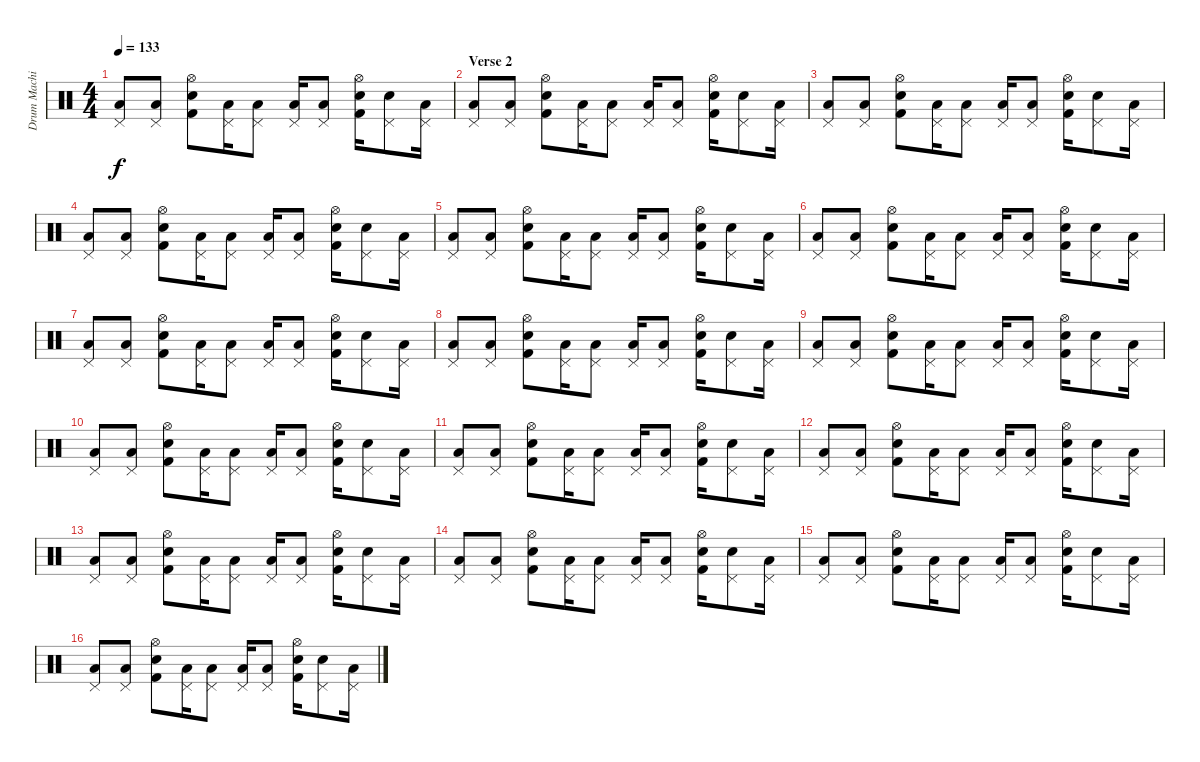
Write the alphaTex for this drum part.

\track ("Drum Machine" "Drum Machi") {instrument percussion}
\staff {score}
\articulation defaults
\ts (4 4)
\tempo 133
\clef neutral
\ks c
("Pedal Hi-Hat (hit)" "Low Tom (hit)").8{dy f} ("Pedal Hi-Hat (hit)" "Low Tom (hit)").8 ("Hi-Hat (open)" "Snare (hit) 2" "Kick (hit) 2").8 ("Pedal Hi-Hat (hit)" "Low Tom (hit)").16 ("Pedal Hi-Hat (hit)" "Low Tom (hit)").8 ("Pedal Hi-Hat (hit)" "Low Tom (hit)").16 ("Pedal Hi-Hat (hit)" "Low Tom (hit)").8 ("Hi-Hat (open)" "Snare (hit) 2" "Kick (hit) 2").16 ("Pedal Hi-Hat (hit)" "Snare (hit) 2").8 ("Pedal Hi-Hat (hit)" "Low Tom (hit)").16 |
\section ("" "Verse 2")
("Pedal Hi-Hat (hit)" "Low Tom (hit)").8 ("Pedal Hi-Hat (hit)" "Low Tom (hit)").8 ("Hi-Hat (open)" "Snare (hit) 2" "Kick (hit) 2").8 ("Pedal Hi-Hat (hit)" "Low Tom (hit)").16 ("Pedal Hi-Hat (hit)" "Low Tom (hit)").8 ("Pedal Hi-Hat (hit)" "Low Tom (hit)").16 ("Pedal Hi-Hat (hit)" "Low Tom (hit)").8 ("Hi-Hat (open)" "Snare (hit) 2" "Kick (hit) 2").16 ("Pedal Hi-Hat (hit)" "Snare (hit) 2").8 ("Pedal Hi-Hat (hit)" "Low Tom (hit)").16 |
("Pedal Hi-Hat (hit)" "Low Tom (hit)").8 ("Pedal Hi-Hat (hit)" "Low Tom (hit)").8 ("Hi-Hat (open)" "Snare (hit) 2" "Kick (hit) 2").8 ("Pedal Hi-Hat (hit)" "Low Tom (hit)").16 ("Pedal Hi-Hat (hit)" "Low Tom (hit)").8 ("Pedal Hi-Hat (hit)" "Low Tom (hit)").16 ("Pedal Hi-Hat (hit)" "Low Tom (hit)").8 ("Hi-Hat (open)" "Snare (hit) 2" "Kick (hit) 2").16 ("Pedal Hi-Hat (hit)" "Snare (hit) 2").8 ("Pedal Hi-Hat (hit)" "Low Tom (hit)").16 |
("Pedal Hi-Hat (hit)" "Low Tom (hit)").8 ("Pedal Hi-Hat (hit)" "Low Tom (hit)").8 ("Hi-Hat (open)" "Snare (hit) 2" "Kick (hit) 2").8 ("Pedal Hi-Hat (hit)" "Low Tom (hit)").16 ("Pedal Hi-Hat (hit)" "Low Tom (hit)").8 ("Pedal Hi-Hat (hit)" "Low Tom (hit)").16 ("Pedal Hi-Hat (hit)" "Low Tom (hit)").8 ("Hi-Hat (open)" "Snare (hit) 2" "Kick (hit) 2").16 ("Pedal Hi-Hat (hit)" "Snare (hit) 2").8 ("Pedal Hi-Hat (hit)" "Low Tom (hit)").16 |
("Pedal Hi-Hat (hit)" "Low Tom (hit)").8 ("Pedal Hi-Hat (hit)" "Low Tom (hit)").8 ("Hi-Hat (open)" "Snare (hit) 2" "Kick (hit) 2").8 ("Pedal Hi-Hat (hit)" "Low Tom (hit)").16 ("Pedal Hi-Hat (hit)" "Low Tom (hit)").8 ("Pedal Hi-Hat (hit)" "Low Tom (hit)").16 ("Pedal Hi-Hat (hit)" "Low Tom (hit)").8 ("Hi-Hat (open)" "Snare (hit) 2" "Kick (hit) 2").16 ("Pedal Hi-Hat (hit)" "Snare (hit) 2").8 ("Pedal Hi-Hat (hit)" "Low Tom (hit)").16 |
("Pedal Hi-Hat (hit)" "Low Tom (hit)").8 ("Pedal Hi-Hat (hit)" "Low Tom (hit)").8 ("Hi-Hat (open)" "Snare (hit) 2" "Kick (hit) 2").8 ("Pedal Hi-Hat (hit)" "Low Tom (hit)").16 ("Pedal Hi-Hat (hit)" "Low Tom (hit)").8 ("Pedal Hi-Hat (hit)" "Low Tom (hit)").16 ("Pedal Hi-Hat (hit)" "Low Tom (hit)").8 ("Hi-Hat (open)" "Snare (hit) 2" "Kick (hit) 2").16 ("Pedal Hi-Hat (hit)" "Snare (hit) 2").8 ("Pedal Hi-Hat (hit)" "Low Tom (hit)").16 |
("Pedal Hi-Hat (hit)" "Low Tom (hit)").8 ("Pedal Hi-Hat (hit)" "Low Tom (hit)").8 ("Hi-Hat (open)" "Snare (hit) 2" "Kick (hit) 2").8 ("Pedal Hi-Hat (hit)" "Low Tom (hit)").16 ("Pedal Hi-Hat (hit)" "Low Tom (hit)").8 ("Pedal Hi-Hat (hit)" "Low Tom (hit)").16 ("Pedal Hi-Hat (hit)" "Low Tom (hit)").8 ("Hi-Hat (open)" "Snare (hit) 2" "Kick (hit) 2").16 ("Pedal Hi-Hat (hit)" "Snare (hit) 2").8 ("Pedal Hi-Hat (hit)" "Low Tom (hit)").16 |
("Pedal Hi-Hat (hit)" "Low Tom (hit)").8 ("Pedal Hi-Hat (hit)" "Low Tom (hit)").8 ("Hi-Hat (open)" "Snare (hit) 2" "Kick (hit) 2").8 ("Pedal Hi-Hat (hit)" "Low Tom (hit)").16 ("Pedal Hi-Hat (hit)" "Low Tom (hit)").8 ("Pedal Hi-Hat (hit)" "Low Tom (hit)").16 ("Pedal Hi-Hat (hit)" "Low Tom (hit)").8 ("Hi-Hat (open)" "Snare (hit) 2" "Kick (hit) 2").16 ("Pedal Hi-Hat (hit)" "Snare (hit) 2").8 ("Pedal Hi-Hat (hit)" "Low Tom (hit)").16 |
("Pedal Hi-Hat (hit)" "Low Tom (hit)").8 ("Pedal Hi-Hat (hit)" "Low Tom (hit)").8 ("Hi-Hat (open)" "Snare (hit) 2" "Kick (hit) 2").8 ("Pedal Hi-Hat (hit)" "Low Tom (hit)").16 ("Pedal Hi-Hat (hit)" "Low Tom (hit)").8 ("Pedal Hi-Hat (hit)" "Low Tom (hit)").16 ("Pedal Hi-Hat (hit)" "Low Tom (hit)").8 ("Hi-Hat (open)" "Snare (hit) 2" "Kick (hit) 2").16 ("Pedal Hi-Hat (hit)" "Snare (hit) 2").8 ("Pedal Hi-Hat (hit)" "Low Tom (hit)").16 |
("Pedal Hi-Hat (hit)" "Low Tom (hit)").8 ("Pedal Hi-Hat (hit)" "Low Tom (hit)").8 ("Hi-Hat (open)" "Snare (hit) 2" "Kick (hit) 2").8 ("Pedal Hi-Hat (hit)" "Low Tom (hit)").16 ("Pedal Hi-Hat (hit)" "Low Tom (hit)").8 ("Pedal Hi-Hat (hit)" "Low Tom (hit)").16 ("Pedal Hi-Hat (hit)" "Low Tom (hit)").8 ("Hi-Hat (open)" "Snare (hit) 2" "Kick (hit) 2").16 ("Pedal Hi-Hat (hit)" "Snare (hit) 2").8 ("Pedal Hi-Hat (hit)" "Low Tom (hit)").16 |
("Pedal Hi-Hat (hit)" "Low Tom (hit)").8 ("Pedal Hi-Hat (hit)" "Low Tom (hit)").8 ("Hi-Hat (open)" "Snare (hit) 2" "Kick (hit) 2").8 ("Pedal Hi-Hat (hit)" "Low Tom (hit)").16 ("Pedal Hi-Hat (hit)" "Low Tom (hit)").8 ("Pedal Hi-Hat (hit)" "Low Tom (hit)").16 ("Pedal Hi-Hat (hit)" "Low Tom (hit)").8 ("Hi-Hat (open)" "Snare (hit) 2" "Kick (hit) 2").16 ("Pedal Hi-Hat (hit)" "Snare (hit) 2").8 ("Pedal Hi-Hat (hit)" "Low Tom (hit)").16 |
("Pedal Hi-Hat (hit)" "Low Tom (hit)").8 ("Pedal Hi-Hat (hit)" "Low Tom (hit)").8 ("Hi-Hat (open)" "Snare (hit) 2" "Kick (hit) 2").8 ("Pedal Hi-Hat (hit)" "Low Tom (hit)").16 ("Pedal Hi-Hat (hit)" "Low Tom (hit)").8 ("Pedal Hi-Hat (hit)" "Low Tom (hit)").16 ("Pedal Hi-Hat (hit)" "Low Tom (hit)").8 ("Hi-Hat (open)" "Snare (hit) 2" "Kick (hit) 2").16 ("Pedal Hi-Hat (hit)" "Snare (hit) 2").8 ("Pedal Hi-Hat (hit)" "Low Tom (hit)").16 |
("Pedal Hi-Hat (hit)" "Low Tom (hit)").8 ("Pedal Hi-Hat (hit)" "Low Tom (hit)").8 ("Hi-Hat (open)" "Snare (hit) 2" "Kick (hit) 2").8 ("Pedal Hi-Hat (hit)" "Low Tom (hit)").16 ("Pedal Hi-Hat (hit)" "Low Tom (hit)").8 ("Pedal Hi-Hat (hit)" "Low Tom (hit)").16 ("Pedal Hi-Hat (hit)" "Low Tom (hit)").8 ("Hi-Hat (open)" "Snare (hit) 2" "Kick (hit) 2").16 ("Pedal Hi-Hat (hit)" "Snare (hit) 2").8 ("Pedal Hi-Hat (hit)" "Low Tom (hit)").16 |
("Pedal Hi-Hat (hit)" "Low Tom (hit)").8 ("Pedal Hi-Hat (hit)" "Low Tom (hit)").8 ("Hi-Hat (open)" "Snare (hit) 2" "Kick (hit) 2").8 ("Pedal Hi-Hat (hit)" "Low Tom (hit)").16 ("Pedal Hi-Hat (hit)" "Low Tom (hit)").8 ("Pedal Hi-Hat (hit)" "Low Tom (hit)").16 ("Pedal Hi-Hat (hit)" "Low Tom (hit)").8 ("Hi-Hat (open)" "Snare (hit) 2" "Kick (hit) 2").16 ("Pedal Hi-Hat (hit)" "Snare (hit) 2").8 ("Pedal Hi-Hat (hit)" "Low Tom (hit)").16 |
("Pedal Hi-Hat (hit)" "Low Tom (hit)").8 ("Pedal Hi-Hat (hit)" "Low Tom (hit)").8 ("Hi-Hat (open)" "Snare (hit) 2" "Kick (hit) 2").8 ("Pedal Hi-Hat (hit)" "Low Tom (hit)").16 ("Pedal Hi-Hat (hit)" "Low Tom (hit)").8 ("Pedal Hi-Hat (hit)" "Low Tom (hit)").16 ("Pedal Hi-Hat (hit)" "Low Tom (hit)").8 ("Hi-Hat (open)" "Snare (hit) 2" "Kick (hit) 2").16 ("Pedal Hi-Hat (hit)" "Snare (hit) 2").8 ("Pedal Hi-Hat (hit)" "Low Tom (hit)").16 |
("Pedal Hi-Hat (hit)" "Low Tom (hit)").8 ("Pedal Hi-Hat (hit)" "Low Tom (hit)").8 ("Hi-Hat (open)" "Snare (hit) 2" "Kick (hit) 2").8 ("Pedal Hi-Hat (hit)" "Low Tom (hit)").16 ("Pedal Hi-Hat (hit)" "Low Tom (hit)").8 ("Pedal Hi-Hat (hit)" "Low Tom (hit)").16 ("Pedal Hi-Hat (hit)" "Low Tom (hit)").8 ("Hi-Hat (open)" "Snare (hit) 2" "Kick (hit) 2").16 ("Pedal Hi-Hat (hit)" "Snare (hit) 2").8 ("Pedal Hi-Hat (hit)" "Low Tom (hit)").16
